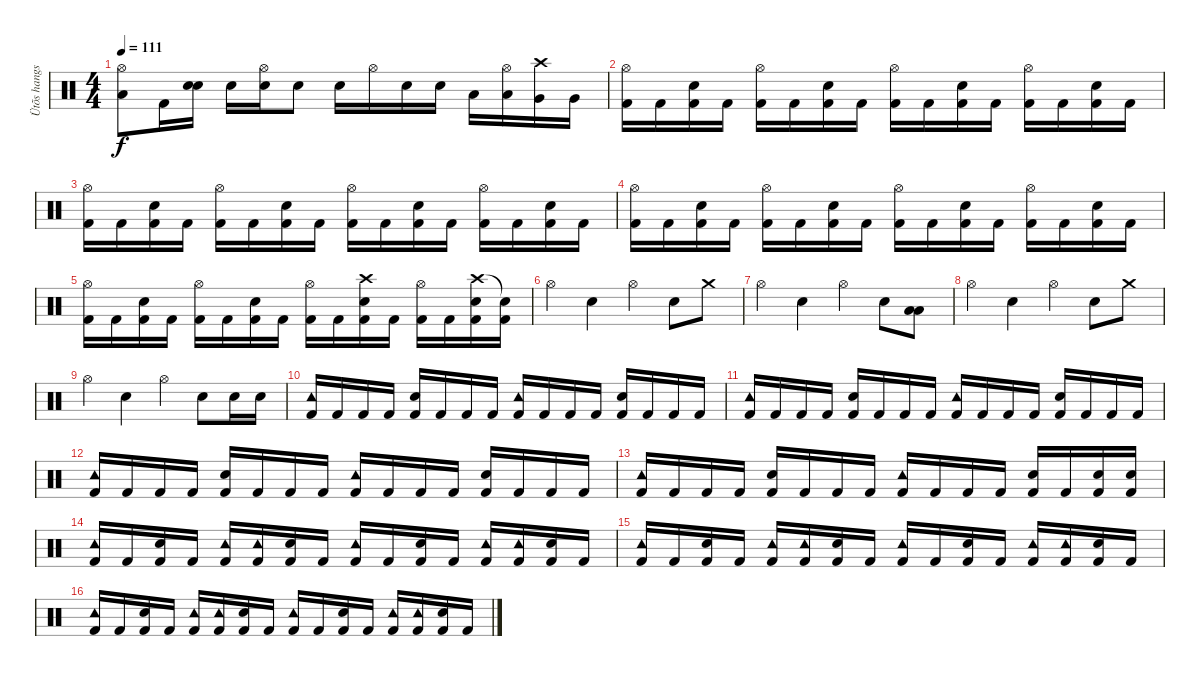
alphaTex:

\track ("Ütõs hangszer" "Ütõs hangs") {instrument percussion}
\staff {score}
\articulation defaults
\ts (4 4)
\tempo 111
\clef neutral
\ks c
("Hi-Hat (open)" "Low Floor Tom (hit)").8{dy f} "Kick (hit) 2".16 ("Electric Snare (hit)" "Electric Snare (hit)").16 "Electric Snare (hit)".16 ("Hi-Hat (open)" "Electric Snare (hit)").16 "Electric Snare (hit)".8 "Electric Snare (hit)".16 "Hi-Hat (open)".16 "Electric Snare (hit)".16 "Electric Snare (hit)".16 "Low Floor Tom (hit)".16 ("Hi-Hat (open)" "Low Floor Tom (hit)").16 ("Crash high (hit)" "Very Low Tom (hit)").16 "Very Low Tom (hit)".16 |
("Kick (hit) 2" "Hi-Hat (open)").16 "Kick (hit) 2".16 ("Kick (hit) 2" "Electric Snare (hit)").16 "Kick (hit) 2".16 ("Kick (hit) 2" "Hi-Hat (open)").16 "Kick (hit) 2".16 ("Kick (hit) 2" "Electric Snare (hit)").16 "Kick (hit) 2".16 ("Kick (hit) 2" "Hi-Hat (open)").16 "Kick (hit) 2".16 ("Kick (hit) 2" "Electric Snare (hit)").16 "Kick (hit) 2".16 ("Kick (hit) 2" "Hi-Hat (open)").16 "Kick (hit) 2".16 ("Kick (hit) 2" "Electric Snare (hit)").16 "Kick (hit) 2".16 |
("Kick (hit) 2" "Hi-Hat (open)").16 "Kick (hit) 2".16 ("Kick (hit) 2" "Electric Snare (hit)").16 "Kick (hit) 2".16 ("Kick (hit) 2" "Hi-Hat (open)").16 "Kick (hit) 2".16 ("Kick (hit) 2" "Electric Snare (hit)").16 "Kick (hit) 2".16 ("Kick (hit) 2" "Hi-Hat (open)").16 "Kick (hit) 2".16 ("Kick (hit) 2" "Electric Snare (hit)").16 "Kick (hit) 2".16 ("Kick (hit) 2" "Hi-Hat (open)").16 "Kick (hit) 2".16 ("Kick (hit) 2" "Electric Snare (hit)").16 "Kick (hit) 2".16 |
("Kick (hit) 2" "Hi-Hat (open)").16 "Kick (hit) 2".16 ("Kick (hit) 2" "Electric Snare (hit)").16 "Kick (hit) 2".16 ("Kick (hit) 2" "Hi-Hat (open)").16 "Kick (hit) 2".16 ("Kick (hit) 2" "Electric Snare (hit)").16 "Kick (hit) 2".16 ("Kick (hit) 2" "Hi-Hat (open)").16 "Kick (hit) 2".16 ("Kick (hit) 2" "Electric Snare (hit)").16 "Kick (hit) 2".16 ("Kick (hit) 2" "Hi-Hat (open)").16 "Kick (hit) 2".16 ("Kick (hit) 2" "Electric Snare (hit)").16 "Kick (hit) 2".16 |
("Kick (hit) 2" "Hi-Hat (open)").16 "Kick (hit) 2".16 ("Kick (hit) 2" "Electric Snare (hit)").16 "Kick (hit) 2".16 ("Kick (hit) 2" "Hi-Hat (open)").16 "Kick (hit) 2".16 ("Kick (hit) 2" "Electric Snare (hit)").16 "Kick (hit) 2".16 ("Kick (hit) 2" "Hi-Hat (open)").16 "Kick (hit) 2".16 ("Kick (hit) 2" "Crash high (hit)" "Electric Snare (hit)").16 "Kick (hit) 2".16 ("Kick (hit) 2" "Hi-Hat (open)").16 "Kick (hit) 2".16 ("Kick (hit) 2" "Crash high (hit)" "Electric Snare (hit)").16 ("Kick (hit) 2" "Snare (hit)"{t}).16 |
"Hi-Hat (open)".4 "Electric Snare (hit)".4 "Hi-Hat (open)".4 "Electric Snare (hit)".8 "Crash medium (hit)".8 |
"Hi-Hat (open)".4 "Electric Snare (hit)".4 "Hi-Hat (open)".4 "Electric Snare (hit)".8 ("Low Floor Tom (hit)" "Low Floor Tom (hit)").8 |
"Hi-Hat (open)".4 "Electric Snare (hit)".4 "Hi-Hat (open)".4 "Electric Snare (hit)".8 "Crash medium (hit)".8 |
"Hi-Hat (open)".4 "Electric Snare (hit)".4 "Hi-Hat (open)".4 "Electric Snare (hit)".8 "Electric Snare (hit)".16 "Electric Snare (hit)".16 |
("Kick (hit) 2" "Tambourine (hit)").16 "Kick (hit) 2".16 "Kick (hit) 2".16 "Kick (hit) 2".16 ("Kick (hit) 2" "Electric Snare (hit)").16 "Kick (hit) 2".16 "Kick (hit) 2".16 "Kick (hit) 2".16 ("Kick (hit) 2" "Tambourine (hit)").16 "Kick (hit) 2".16 "Kick (hit) 2".16 "Kick (hit) 2".16 ("Kick (hit) 2" "Electric Snare (hit)").16 "Kick (hit) 2".16 "Kick (hit) 2".16 "Kick (hit) 2".16 |
("Kick (hit) 2" "Tambourine (hit)").16 "Kick (hit) 2".16 "Kick (hit) 2".16 "Kick (hit) 2".16 ("Kick (hit) 2" "Electric Snare (hit)").16 "Kick (hit) 2".16 "Kick (hit) 2".16 "Kick (hit) 2".16 ("Kick (hit) 2" "Tambourine (hit)").16 "Kick (hit) 2".16 "Kick (hit) 2".16 "Kick (hit) 2".16 ("Kick (hit) 2" "Electric Snare (hit)").16 "Kick (hit) 2".16 "Kick (hit) 2".16 "Kick (hit) 2".16 |
("Kick (hit) 2" "Tambourine (hit)").16 "Kick (hit) 2".16 "Kick (hit) 2".16 "Kick (hit) 2".16 ("Kick (hit) 2" "Electric Snare (hit)").16 "Kick (hit) 2".16 "Kick (hit) 2".16 "Kick (hit) 2".16 ("Kick (hit) 2" "Tambourine (hit)").16 "Kick (hit) 2".16 "Kick (hit) 2".16 "Kick (hit) 2".16 ("Kick (hit) 2" "Electric Snare (hit)").16 "Kick (hit) 2".16 "Kick (hit) 2".16 "Kick (hit) 2".16 |
("Kick (hit) 2" "Tambourine (hit)").16 "Kick (hit) 2".16 "Kick (hit) 2".16 "Kick (hit) 2".16 ("Kick (hit) 2" "Electric Snare (hit)").16 "Kick (hit) 2".16 "Kick (hit) 2".16 "Kick (hit) 2".16 ("Kick (hit) 2" "Tambourine (hit)").16 "Kick (hit) 2".16 "Kick (hit) 2".16 "Kick (hit) 2".16 ("Kick (hit) 2" "Electric Snare (hit)").16 "Kick (hit) 2".16 ("Kick (hit) 2" "Electric Snare (hit)").16 ("Kick (hit) 2" "Electric Snare (hit)").16 |
("Kick (hit) 2" "Tambourine (hit)").16 "Kick (hit) 2".16 ("Kick (hit) 2" "Electric Snare (hit)").16 "Kick (hit) 2".16 ("Kick (hit) 2" "Tambourine (hit)").16 ("Kick (hit) 2" "Tambourine (hit)").16 ("Kick (hit) 2" "Electric Snare (hit)").16 "Kick (hit) 2".16 ("Kick (hit) 2" "Tambourine (hit)").16 "Kick (hit) 2".16 ("Kick (hit) 2" "Electric Snare (hit)").16 "Kick (hit) 2".16 ("Kick (hit) 2" "Tambourine (hit)").16 ("Kick (hit) 2" "Tambourine (hit)").16 ("Kick (hit) 2" "Electric Snare (hit)").16 "Kick (hit) 2".16 |
("Kick (hit) 2" "Tambourine (hit)").16 "Kick (hit) 2".16 ("Kick (hit) 2" "Electric Snare (hit)").16 "Kick (hit) 2".16 ("Kick (hit) 2" "Tambourine (hit)").16 ("Kick (hit) 2" "Tambourine (hit)").16 ("Kick (hit) 2" "Electric Snare (hit)").16 "Kick (hit) 2".16 ("Kick (hit) 2" "Tambourine (hit)").16 "Kick (hit) 2".16 ("Kick (hit) 2" "Electric Snare (hit)").16 "Kick (hit) 2".16 ("Kick (hit) 2" "Tambourine (hit)").16 ("Kick (hit) 2" "Tambourine (hit)").16 ("Kick (hit) 2" "Electric Snare (hit)").16 "Kick (hit) 2".16 |
("Kick (hit) 2" "Tambourine (hit)").16 "Kick (hit) 2".16 ("Kick (hit) 2" "Electric Snare (hit)").16 "Kick (hit) 2".16 ("Kick (hit) 2" "Tambourine (hit)").16 ("Kick (hit) 2" "Tambourine (hit)").16 ("Kick (hit) 2" "Electric Snare (hit)").16 "Kick (hit) 2".16 ("Kick (hit) 2" "Tambourine (hit)").16 "Kick (hit) 2".16 ("Kick (hit) 2" "Electric Snare (hit)").16 "Kick (hit) 2".16 ("Kick (hit) 2" "Tambourine (hit)").16 ("Kick (hit) 2" "Tambourine (hit)").16 ("Kick (hit) 2" "Electric Snare (hit)").16 "Kick (hit) 2".16
